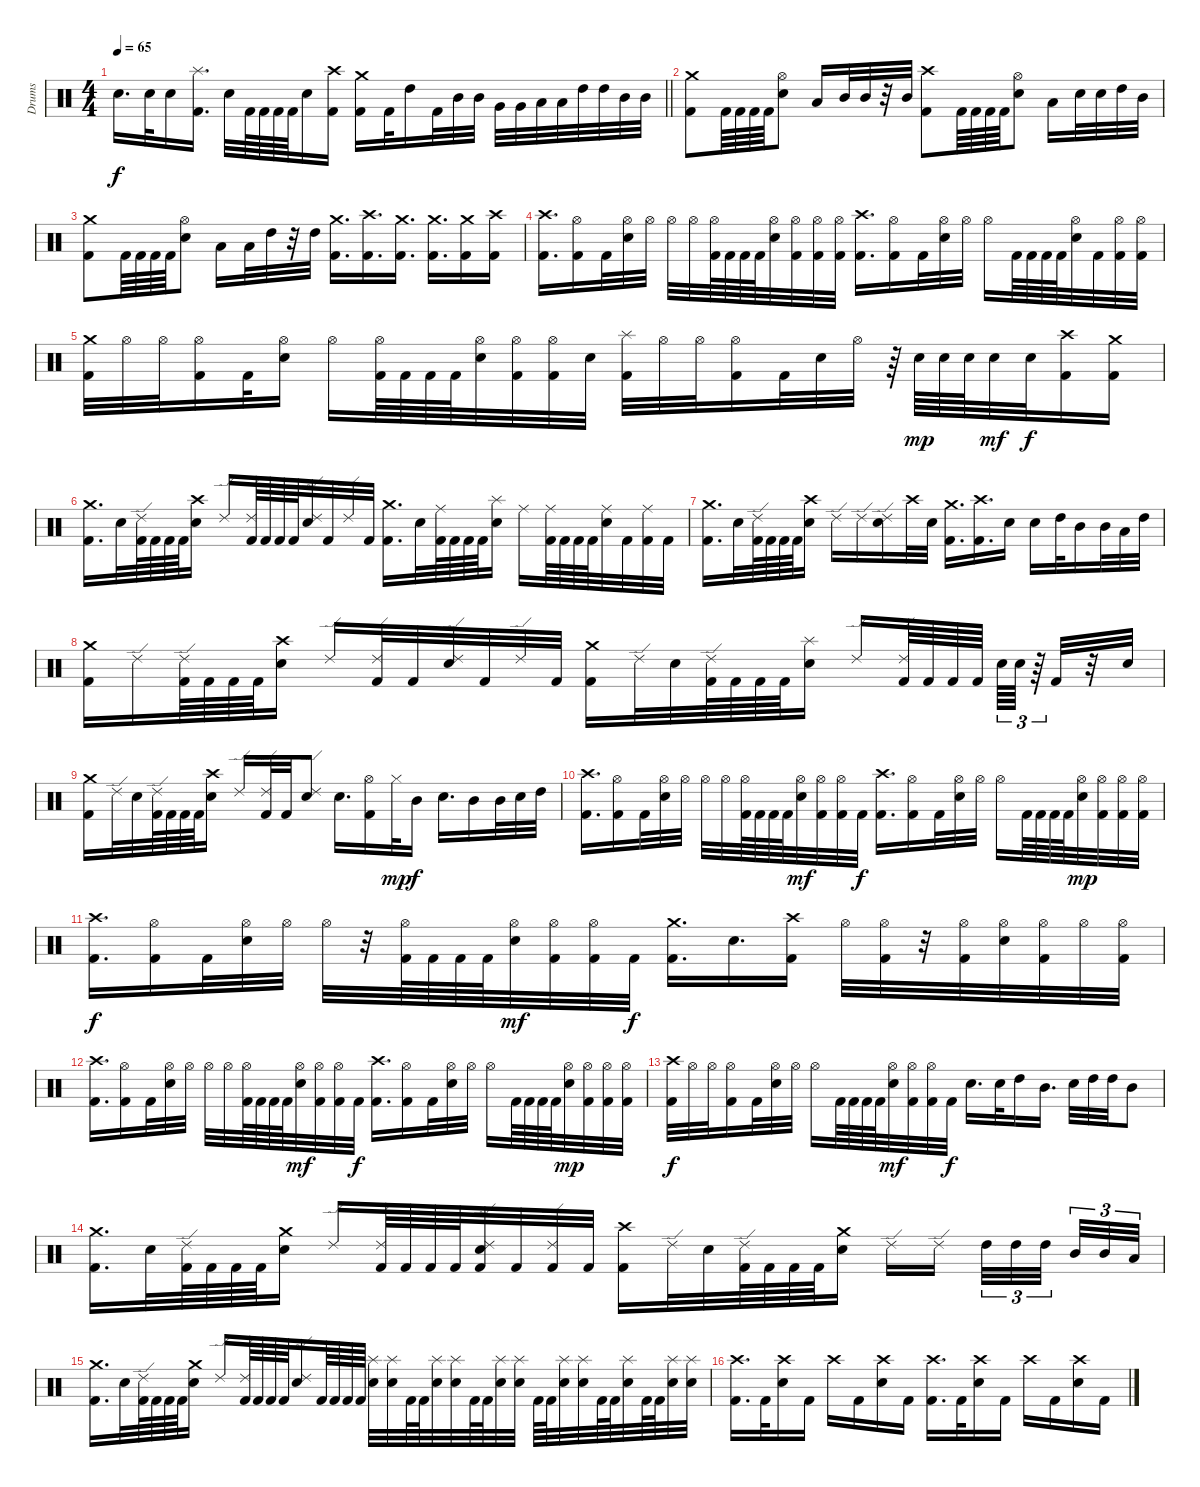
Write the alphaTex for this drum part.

\track ("Drums" "Drums") {instrument percussion}
\staff {score}
\articulation defaults
\ts (4 4)
\tempo 65
\clef neutral
\barLineRight lightlight
\ks c "Electric Snare (hit)".16{d dy f} "Electric Snare (hit)".32 "Electric Snare (hit)".16
("Splash (hit)" "Kick (hit) 2").16{d} "Electric Snare (hit)".32 "Kick (hit) 2".64 "Kick (hit) 2".64 "Kick (hit) 2".64 "Kick (hit) 2".64 "Electric Snare (hit)".16 ("Crash high (hit)" "Kick (hit) 2").16 ("Crash medium (hit)" "Kick (hit) 2").16 "Kick (hit) 2".32 "High Tom (hit)".16 "Kick (hit) 2".32 "Mid Tom (hit)".32 "Mid Tom (hit)".32 "Very Low Tom (hit)".32 "Very Low Tom (hit)".32 "Low Tom (hit)".32 "Low Tom (hit)".32 "High Tom (hit)".32 "High Tom (hit)".32 "Mid Tom (hit)".32 "Mid Tom (hit)".32 |
\section ("" "")
("Crash medium (hit)" "Kick (hit) 2").8 "Kick (hit) 2".64 "Kick (hit) 2".64 "Kick (hit) 2".64 "Kick (hit) 2".64 ("Hi-Hat (open)" "Electric Snare (hit)").8 "Low Tom (hit)".16 "Mid Tom (hit)".32 "Mid Tom (hit)".32 r.32 "Mid Tom (hit)".32 ("Crash high (hit)" "Kick (hit) 2").8 "Kick (hit) 2".64 "Kick (hit) 2".64 "Kick (hit) 2".64 "Kick (hit) 2".64 ("Hi-Hat (open)" "Electric Snare (hit)").8 "Low Tom (hit)".16 "Electric Snare (hit)".32 "Electric Snare (hit)".32 "High Tom (hit)".32 "Mid Tom (hit)".32 |
("Crash medium (hit)" "Kick (hit) 2").8 "Kick (hit) 2".64 "Kick (hit) 2".64 "Kick (hit) 2".64 "Kick (hit) 2".64 ("Hi-Hat (open)" "Electric Snare (hit)").8 "Low Tom (hit)".16 "Low Tom (hit)".32 "High Tom (hit)".32 r.32 "High Tom (hit)".32 ("Crash medium (hit)" "Kick (hit) 2").16{d} ("Crash high (hit)" "Kick (hit) 2").16{d} ("Crash medium (hit)" "Kick (hit) 2").16{d} ("Crash medium (hit)" "Kick (hit) 2").16{d} ("Crash medium (hit)" "Kick (hit) 2").16 ("Crash high (hit)" "Kick (hit) 2").16 |
("Crash high (hit)" "Kick (hit) 2").16{d} ("Hi-Hat (open)" "Kick (hit) 2").16 "Kick (hit) 2".32 ("Hi-Hat (open)" "Electric Snare (hit)").32 "Hi-Hat (open)".32 "Hi-Hat (open)".32 "Hi-Hat (open)".32 ("Hi-Hat (open)" "Kick (hit) 2").64 "Kick (hit) 2".64 "Kick (hit) 2".64 "Kick (hit) 2".64 ("Hi-Hat (open)" "Electric Snare (hit)").32 ("Hi-Hat (open)" "Kick (hit) 2").32 ("Hi-Hat (open)" "Kick (hit) 2").32 ("Hi-Hat (open)" "Kick (hit) 2").32 ("Crash high (hit)" "Kick (hit) 2").16{d} ("Hi-Hat (open)" "Kick (hit) 2").16 "Kick (hit) 2".32 ("Hi-Hat (open)" "Electric Snare (hit)").32 "Hi-Hat (open)".32 "Hi-Hat (open)".16 "Kick (hit) 2".64 "Kick (hit) 2".64 "Kick (hit) 2".64 "Kick (hit) 2".64 ("Hi-Hat (open)" "Electric Snare (hit)").32 "Kick (hit) 2".32 ("Hi-Hat (open)" "Kick (hit) 2").32 ("Hi-Hat (open)" "Kick (hit) 2").32 |
("Crash medium (hit)" "Kick (hit) 2").32 "Hi-Hat (open)".32 "Hi-Hat (open)".32 ("Hi-Hat (open)" "Kick (hit) 2").16 "Kick (hit) 2".32 ("Hi-Hat (open)" "Electric Snare (hit)").16 "Hi-Hat (open)".16 ("Hi-Hat (open)" "Kick (hit) 2").64 "Kick (hit) 2".64 "Kick (hit) 2".64 "Kick (hit) 2".64 ("Hi-Hat (open)" "Electric Snare (hit)").32 ("Hi-Hat (open)" "Kick (hit) 2").32 ("Hi-Hat (open)" "Kick (hit) 2").32 "Electric Snare (hit)".32 ("Splash (hit)" "Kick (hit) 2").32 "Hi-Hat (open)".32 "Hi-Hat (open)".32 ("Hi-Hat (open)" "Kick (hit) 2").16 "Kick (hit) 2".32 "Electric Snare (hit)".32 "Hi-Hat (open)".32 r.64 "Electric Snare (hit)".64{dy mp} "Electric Snare (hit)".64 "Electric Snare (hit)".64 "Electric Snare (hit)".32{dy mf} "Electric Snare (hit)".32{dy f} ("Crash high (hit)" "Kick (hit) 2").16 ("Crash medium (hit)" "Kick (hit) 2").16 |
("Crash medium (hit)" "Kick (hit) 2").16{d} "Electric Snare (hit)".32 ("Ride (edge) 2" "Kick (hit) 2").64 "Kick (hit) 2".64 "Kick (hit) 2".64 "Kick (hit) 2".64 ("Crash high (hit)" "Electric Snare (hit)").16 "Ride (edge) 2".16 ("Ride (edge) 2" "Kick (hit) 2").64 "Kick (hit) 2".64 "Kick (hit) 2".64 "Kick (hit) 2".64 ("Ride (edge) 2" "Electric Snare (hit)").32 "Kick (hit) 2".32 "Ride (edge) 2".32 "Kick (hit) 2".32 ("Crash medium (hit)" "Kick (hit) 2").16{d} "Electric Snare (hit)".32 ("Ride (middle)" "Kick (hit) 2").64 "Kick (hit) 2".64 "Kick (hit) 2".64 "Kick (hit) 2".64 ("Splash (hit)" "Electric Snare (hit)").16 "Ride (middle)".16 ("Ride (middle)" "Kick (hit) 2").64 "Kick (hit) 2".64 "Kick (hit) 2".64 "Kick (hit) 2".64 ("Ride (middle)" "Electric Snare (hit)").32 "Kick (hit) 2".32 ("Ride (middle)" "Kick (hit) 2").32 "Kick (hit) 2".32 |
("Crash medium (hit)" "Kick (hit) 2").16{d} "Electric Snare (hit)".32 ("Ride (edge) 2" "Kick (hit) 2").64 "Kick (hit) 2".64 "Kick (hit) 2".64 "Kick (hit) 2".64 ("Crash high (hit)" "Electric Snare (hit)").16 "Ride (edge) 2".16 "Ride (edge) 2".16 ("Ride (edge) 2" "Electric Snare (hit)").16 "Crash high (hit)".32 "Electric Snare (hit)".32 ("Crash medium (hit)" "Kick (hit) 2").16{d} ("Crash high (hit)" "Kick (hit) 2").16{d} "Electric Snare (hit)".16 "Electric Snare (hit)".16 "High Tom (hit)".32 "Mid Tom (hit)".16 "Mid Tom (hit)".32 "Low Tom (hit)".32 "High Tom (hit)".32 |
("Crash medium (hit)" "Kick (hit) 2").16 "Ride (edge) 2".16 ("Ride (edge) 2" "Kick (hit) 2").64 "Kick (hit) 2".64 "Kick (hit) 2".64 "Kick (hit) 2".64 ("Crash high (hit)" "Electric Snare (hit)").16 "Ride (edge) 2".16 ("Ride (edge) 2" "Kick (hit) 2").32 "Kick (hit) 2".32 ("Ride (edge) 2" "Electric Snare (hit)").32 "Kick (hit) 2".32 "Ride (edge) 2".32 "Kick (hit) 2".32 ("Crash medium (hit)" "Kick (hit) 2").16 "Ride (edge) 2".32 "Electric Snare (hit)".32 ("Ride (edge) 2" "Kick (hit) 2").64 "Kick (hit) 2".64 "Kick (hit) 2".64 "Kick (hit) 2".64 ("Splash (hit)" "Electric Snare (hit)").16 "Ride (edge) 2".16 ("Ride (edge) 2" "Kick (hit) 2").64 "Kick (hit) 2".64 "Kick (hit) 2".64 "Kick (hit) 2".64 "Electric Snare (hit)".64{tu (3 2)} "Electric Snare (hit)".64{tu (3 2)} r.64{tu (3 2)} "Kick (hit) 2".32 r.32 "Electric Snare (hit)".32 |
("Crash medium (hit)" "Kick (hit) 2").16 "Ride (edge) 2".32 "Electric Snare (hit)".32 ("Ride (edge) 2" "Kick (hit) 2").64 "Kick (hit) 2".64 "Kick (hit) 2".64 "Kick (hit) 2".64 ("Crash high (hit)" "Electric Snare (hit)").16 "Ride (edge) 2".16 ("Ride (edge) 2" "Kick (hit) 2").32 "Kick (hit) 2".32 ("Ride (edge) 2" "Electric Snare (hit)").8 "Electric Snare (hit)".16{d} ("Hi-Hat (open)" "Kick (hit) 2").16 "Hi-Hat (closed)".32{dy mp} "Mid Tom (hit)".16{dy f} "Electric Snare (hit)".16{d} "Mid Tom (hit)".16 "Mid Tom (hit)".32 "Electric Snare (hit)".32 "High Tom (hit)".32 |
("Crash high (hit)" "Kick (hit) 2").16{d} ("Hi-Hat (open)" "Kick (hit) 2").16 "Kick (hit) 2".32 ("Hi-Hat (open)" "Electric Snare (hit)").32 "Hi-Hat (open)".32 "Hi-Hat (open)".32 "Hi-Hat (open)".32 ("Hi-Hat (open)" "Kick (hit) 2").64 "Kick (hit) 2".64 "Kick (hit) 2".64 "Kick (hit) 2".64 ("Hi-Hat (open)" "Electric Snare (hit)").32{dy mf} ("Hi-Hat (open)" "Kick (hit) 2").32 ("Hi-Hat (open)" "Kick (hit) 2").32 "Kick (hit) 2".32{dy f} ("Crash high (hit)" "Kick (hit) 2").16{d} ("Hi-Hat (open)" "Kick (hit) 2").16 "Kick (hit) 2".32 ("Hi-Hat (open)" "Electric Snare (hit)").32 "Hi-Hat (open)".32 "Hi-Hat (open)".16 "Kick (hit) 2".64 "Kick (hit) 2".64 "Kick (hit) 2".64 "Kick (hit) 2".64 ("Hi-Hat (open)" "Electric Snare (hit)").32{dy mp} ("Hi-Hat (open)" "Kick (hit) 2").32 ("Hi-Hat (open)" "Kick (hit) 2").32 ("Hi-Hat (open)" "Kick (hit) 2").32 |
("Crash high (hit)" "Kick (hit) 2").16{d dy f} ("Hi-Hat (open)" "Kick (hit) 2").16 "Kick (hit) 2".32 ("Hi-Hat (open)" "Electric Snare (hit)").32 "Hi-Hat (open)".32 "Hi-Hat (open)".32 r.32 ("Hi-Hat (open)" "Kick (hit) 2").64 "Kick (hit) 2".64 "Kick (hit) 2".64 "Kick (hit) 2".64 ("Hi-Hat (open)" "Electric Snare (hit)").32{dy mf} ("Hi-Hat (open)" "Kick (hit) 2").32 ("Hi-Hat (open)" "Kick (hit) 2").32 "Kick (hit) 2".32{dy f} ("Crash medium (hit)" "Kick (hit) 2").16{d} "Electric Snare (hit)".16{d} ("Crash high (hit)" "Kick (hit) 2").16 "Hi-Hat (open)".32 ("Hi-Hat (open)" "Kick (hit) 2").32 r.32 ("Hi-Hat (open)" "Kick (hit) 2").32 ("Hi-Hat (open)" "Electric Snare (hit)").32 ("Hi-Hat (open)" "Kick (hit) 2").32 "Hi-Hat (open)".32 ("Hi-Hat (open)" "Kick (hit) 2").32 |
("Crash high (hit)" "Kick (hit) 2").16{d} ("Hi-Hat (open)" "Kick (hit) 2").16 "Kick (hit) 2".32 ("Hi-Hat (open)" "Electric Snare (hit)").32 "Hi-Hat (open)".32 "Hi-Hat (open)".32 "Hi-Hat (open)".32 ("Hi-Hat (open)" "Kick (hit) 2").64 "Kick (hit) 2".64 "Kick (hit) 2".64 "Kick (hit) 2".64 ("Hi-Hat (open)" "Electric Snare (hit)").32{dy mf} ("Hi-Hat (open)" "Kick (hit) 2").32 ("Hi-Hat (open)" "Kick (hit) 2").32 "Kick (hit) 2".32{dy f} ("Crash high (hit)" "Kick (hit) 2").16{d} ("Hi-Hat (open)" "Kick (hit) 2").16 "Kick (hit) 2".32 ("Hi-Hat (open)" "Electric Snare (hit)").32 "Hi-Hat (open)".32 "Hi-Hat (open)".16 "Kick (hit) 2".64 "Kick (hit) 2".64 "Kick (hit) 2".64 "Kick (hit) 2".64 ("Hi-Hat (open)" "Electric Snare (hit)").32{dy mp} ("Hi-Hat (open)" "Kick (hit) 2").32 ("Hi-Hat (open)" "Kick (hit) 2").32 ("Hi-Hat (open)" "Kick (hit) 2").32 |
("Crash high (hit)" "Kick (hit) 2").32{dy f} "Hi-Hat (open)".32 "Hi-Hat (open)".32 ("Hi-Hat (open)" "Kick (hit) 2").16 "Kick (hit) 2".32 ("Hi-Hat (open)" "Electric Snare (hit)").32 "Hi-Hat (open)".32 "Hi-Hat (open)".16 "Kick (hit) 2".64 "Kick (hit) 2".64 "Kick (hit) 2".64 "Kick (hit) 2".64 ("Hi-Hat (open)" "Electric Snare (hit)").32{dy mf} ("Hi-Hat (open)" "Kick (hit) 2").32 ("Hi-Hat (open)" "Kick (hit) 2").32 "Kick (hit) 2".32{dy f} "Electric Snare (hit)".16{d} "Electric Snare (hit)".32 "High Tom (hit)".16 "Mid Tom (hit)".16{d} "Electric Snare (hit)".32 "High Tom (hit)".32 "High Tom (hit)".32 "Mid Tom (hit)".8 |
("Crash medium (hit)" "Kick (hit) 2").16{d} "Electric Snare (hit)".32 ("Ride (edge) 2" "Kick (hit) 2").64 "Kick (hit) 2".64 "Kick (hit) 2".64 "Kick (hit) 2".64 ("Crash medium (hit)" "Electric Snare (hit)").16 "Ride (edge) 2".16 ("Ride (edge) 2" "Kick (hit) 2").64 "Kick (hit) 2".64 "Kick (hit) 2".64 "Kick (hit) 2".64 ("Ride (edge) 2" "Electric Snare (hit)" "Kick (hit) 2").32 "Kick (hit) 2".32 ("Ride (edge) 2" "Kick (hit) 2").32 "Kick (hit) 2".32 ("Crash high (hit)" "Kick (hit) 2").16 "Ride (edge) 2".32 "Electric Snare (hit)".32 ("Ride (edge) 2" "Kick (hit) 2").64 "Kick (hit) 2".64 "Kick (hit) 2".64 "Kick (hit) 2".64 ("Crash medium (hit)" "Electric Snare (hit)").16 "Ride (edge) 2".16 "Ride (edge) 2".16 "High Tom (hit)".32{tu (3 2)} "High Tom (hit)".32{tu (3 2)} "High Tom (hit)".32{tu (3 2)} "Mid Tom (hit)".32{tu (3 2)} "Mid Tom (hit)".32{tu (3 2)} "Low Tom (hit)".32{tu (3 2)} |
("Crash medium (hit)" "Kick (hit) 2").16{d} "Electric Snare (hit)".32 ("Ride (edge) 2" "Kick (hit) 2").64 "Kick (hit) 2".64 "Kick (hit) 2".64 "Kick (hit) 2".64 ("Crash medium (hit)" "Electric Snare (hit)").16 "Ride (edge) 2".16 ("Ride (edge) 2" "Kick (hit) 2").64 "Kick (hit) 2".64 "Kick (hit) 2".64 "Kick (hit) 2".64 ("Ride (edge) 2" "Electric Snare (hit)").16 "Kick (hit) 2".64 "Kick (hit) 2".64 "Kick (hit) 2".64 "Kick (hit) 2".64 ("Splash (hit)" "Electric Snare (hit)").32 ("Splash (hit)" "Electric Snare (hit)").32 "Kick (hit) 2".64 "Kick (hit) 2".64 ("Splash (hit)" "Electric Snare (hit)").32 ("Splash (hit)" "Electric Snare (hit)").32 "Kick (hit) 2".64 "Kick (hit) 2".64 ("Splash (hit)" "Electric Snare (hit)").32 ("Splash (hit)" "Electric Snare (hit)").32 "Kick (hit) 2".64 "Kick (hit) 2".64 ("Splash (hit)" "Electric Snare (hit)").32 ("Splash (hit)" "Electric Snare (hit)").32 "Kick (hit) 2".64 "Kick (hit) 2".64 ("Splash (hit)" "Electric Snare (hit)").32 "Kick (hit) 2".64 "Kick (hit) 2".64 ("Splash (hit)" "Electric Snare (hit)").32 ("Splash (hit)" "Electric Snare (hit)").32 |
("Crash high (hit)" "Kick (hit) 2").16{d} "Kick (hit) 2".32 ("Crash high (hit)" "Electric Snare (hit)").16 "Kick (hit) 2".16 "Crash high (hit)".16 "Kick (hit) 2".16 ("Crash high (hit)" "Electric Snare (hit)").16 "Kick (hit) 2".16 ("Crash high (hit)" "Kick (hit) 2").16{d} "Kick (hit) 2".32 ("Crash high (hit)" "Electric Snare (hit)").16 "Kick (hit) 2".16 "Crash high (hit)".16 "Kick (hit) 2".16 ("Crash high (hit)" "Electric Snare (hit)").16 "Kick (hit) 2".16
